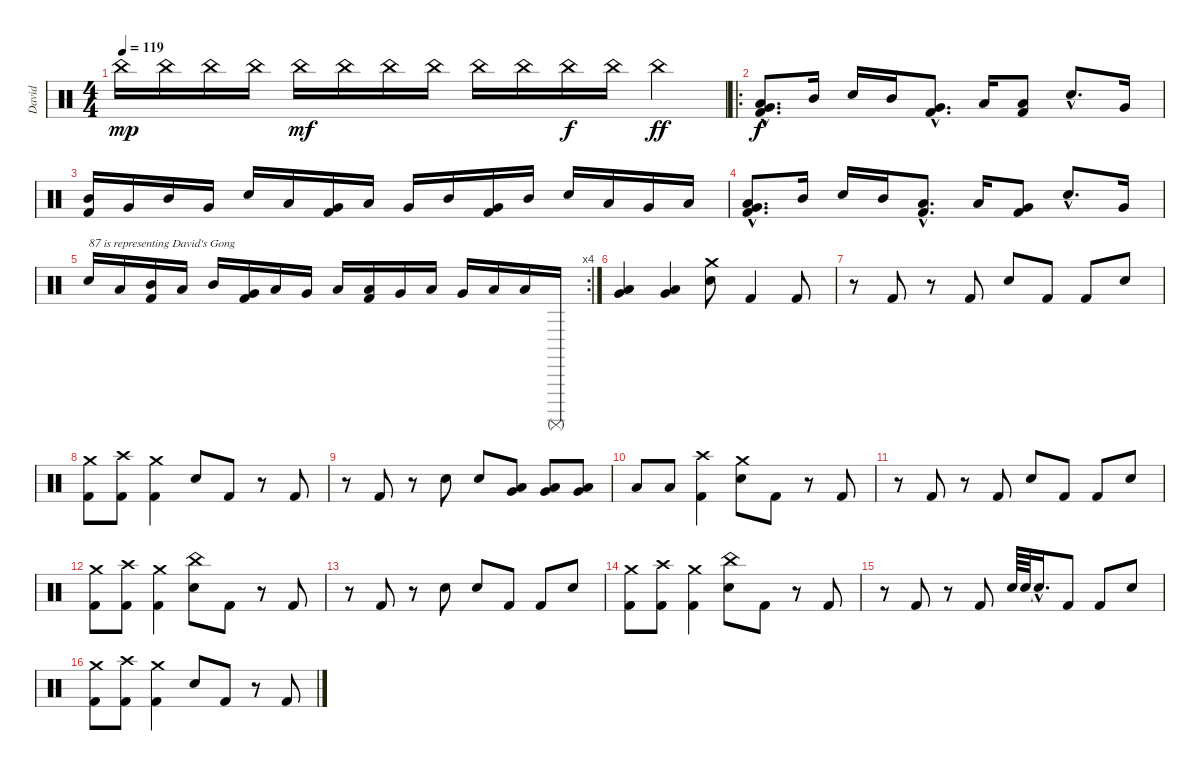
\track ("David" "David") {instrument percussion}
\staff {score}
\articulation defaults
\ts (4 4)
\tempo 119
\clef neutral
\ks c "China (hit)".16{dy mp} "China (hit)".16 "China (hit)".16 "China (hit)".16 "China (hit)".16{dy mf} "China (hit)".16 "China (hit)".16 "China (hit)".16 "China (hit)".16 "China (hit)".16 "China (hit)".16{dy f} "China (hit)".16 "China (hit)".4{dy ff}
|
\ro
("Low Tom (hit)"{hac} "Very Low Tom (hit)"{hac} "Kick (hit) 2"{hac}).8{d dy f} "Mid Tom (hit)".16 "Snare (hit) 2".16 "Mid Tom (hit)".16 ("Very Low Tom (hit)"{hac} "Kick (hit) 2"{hac}).8{d} "Low Tom (hit)".16 ("Low Floor Tom (hit)" "Kick (hit) 2").8 "Snare (hit) 2"{hac}.8{d} "Very Low Tom (hit)".16 |
("Mid Tom (hit)" "Kick (hit) 2").16 "Very Low Tom (hit)".16 "Mid Tom (hit)".16 "Very Low Tom (hit)".16 "Snare (hit) 2".16 "Low Tom (hit)".16 ("Very Low Tom (hit)" "Kick (hit) 2").16 "Low Tom (hit)".16 "Very Low Tom (hit)".16 "Mid Tom (hit)".16 ("Very Low Tom (hit)" "Kick (hit) 2").16 "Mid Tom (hit)".16 "Snare (hit) 2".16 "Low Tom (hit)".16 "Very Low Tom (hit)".16 "Low Floor Tom (hit)".16 |
("Low Tom (hit)"{hac} "Very Low Tom (hit)"{hac} "Kick (hit) 2"{hac}).8{d} "Mid Tom (hit)".16 "Snare (hit) 2".16 "Mid Tom (hit)".16 ("Low Tom (hit)"{hac} "Kick (hit) 2"{hac}).8{d} "Low Tom (hit)".16 ("Very Low Tom (hit)" "Kick (hit) 2").8 "Snare (hit) 2"{hac}.8{d} "Very Low Tom (hit)".16 |
\rc 4 "Snare (hit) 2".16{txt "87 is representing David's Gong"} "Low Tom (hit)".16
("Mid Tom (hit)" "Kick (hit) 2").16 "Low Tom (hit)".16 "Mid Tom (hit)".16 ("Very Low Tom (hit)" "Kick (hit) 2").16 "Low Tom (hit)".16 "Very Low Tom (hit)".16 "Low Tom (hit)".16 ("Low Floor Tom (hit)" "Kick (hit) 2").16 "Very Low Tom (hit)".16 "Low Floor Tom (hit)".16 "Very Low Tom (hit)".16 "Low Floor Tom (hit)".16 "Low Floor Tom (hit)".16 "Surdo (mute)".16 |
("Low Tom (hit)" "Very Low Tom (hit)").4 ("Very Low Tom (hit)" "Low Floor Tom (hit)").4 ("Crash medium (hit)" "Snare (hit) 2").8 "Kick (hit) 2".4 "Kick (hit) 2".8 |
r.8 "Kick (hit) 2".8 r.8 "Kick (hit) 2".8 "Snare (hit) 2".8 "Kick (hit) 2".8 "Kick (hit) 2".8 "Snare (hit) 2".8 |
("Crash medium (hit)" "Kick (hit) 2").8 ("Crash high (hit)" "Kick (hit) 2").8 ("Crash medium (hit)" "Kick (hit) 2").4 "Snare (hit) 2".8 "Kick (hit) 2".8 r.8 "Kick (hit) 2".8 |
r.8 "Kick (hit) 2".8 r.8 "Snare (hit) 2".8 "Snare (hit) 2".8 ("Low Tom (hit)" "Very Low Tom (hit)").8 ("Low Tom (hit)" "Very Low Tom (hit)").8 ("Very Low Tom (hit)" "Low Floor Tom (hit)").8 |
"Low Floor Tom (hit)".8 "Low Floor Tom (hit)".8 ("Crash high (hit)" "Kick (hit) 2").4 ("Crash medium (hit)" "Snare (hit) 2").8 "Kick (hit) 2".8 r.8 "Kick (hit) 2".8 |
r.8 "Kick (hit) 2".8 r.8 "Kick (hit) 2".8 "Snare (hit) 2".8 "Kick (hit) 2".8 "Kick (hit) 2".8 "Snare (hit) 2".8 |
("Crash medium (hit)" "Kick (hit) 2").8 ("Crash high (hit)" "Kick (hit) 2").8 ("Crash medium (hit)" "Kick (hit) 2").4 ("China (hit)" "Snare (hit) 2").8 "Kick (hit) 2".8 r.8 "Kick (hit) 2".8 |
r.8 "Kick (hit) 2".8 r.8 "Snare (hit) 2".8 "Snare (hit) 2".8 "Kick (hit) 2".8 "Kick (hit) 2".8 "Snare (hit) 2".8 |
("Crash medium (hit)" "Kick (hit) 2").8 ("Crash high (hit)" "Kick (hit) 2").8 ("Crash medium (hit)" "Kick (hit) 2").4 ("China (hit)" "Snare (hit) 2").8 "Kick (hit) 2".8 r.8 "Kick (hit) 2".8 |
r.8 "Kick (hit) 2".8 r.8 "Kick (hit) 2".8 "Snare (hit) 2".64 "Snare (hit) 2".64 "Snare (hit)"{hac t}.16{d} "Kick (hit) 2".8 "Kick (hit) 2".8 "Snare (hit) 2".8 |
("Crash medium (hit)" "Kick (hit) 2").8 ("Crash high (hit)" "Kick (hit) 2").8 ("Crash medium (hit)" "Kick (hit) 2").4 "Snare (hit) 2".8 "Kick (hit) 2".8 r.8 "Kick (hit) 2".8
